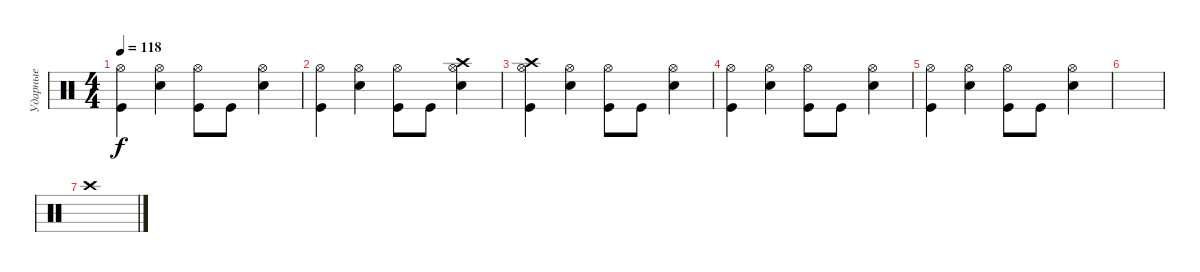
\track ("Ударные" "Ударные") {instrument percussion}
\staff {score}
\articulation defaults
\ts (4 4)
\tempo 118
\clef neutral
\ks c
("Hi-Hat (open)" "Kick (hit)").4{dy f} ("Hi-Hat (open)" "Snare (hit) 2").4 ("Hi-Hat (open)" "Kick (hit)").8 "Kick (hit)".8 ("Hi-Hat (open)" "Snare (hit) 2").4 |
("Hi-Hat (open)" "Kick (hit)").4 ("Hi-Hat (open)" "Snare (hit) 2").4 ("Hi-Hat (open)" "Kick (hit)").8 "Kick (hit)".8 ("Hi-Hat (open)" "Crash high (hit)" "Snare (hit) 2").4 |
("Hi-Hat (open)" "Crash high (hit)" "Kick (hit)").4 ("Hi-Hat (open)" "Snare (hit) 2").4 ("Hi-Hat (open)" "Kick (hit)").8 "Kick (hit)".8 ("Hi-Hat (open)" "Snare (hit) 2").4 |
("Hi-Hat (open)" "Kick (hit)").4 ("Hi-Hat (open)" "Snare (hit) 2").4 ("Hi-Hat (open)" "Kick (hit)").8 "Kick (hit)".8 ("Hi-Hat (open)" "Snare (hit) 2").4 |
("Hi-Hat (open)" "Kick (hit)").4 ("Hi-Hat (open)" "Snare (hit) 2").4 ("Hi-Hat (open)" "Kick (hit)").8 "Kick (hit)".8 ("Hi-Hat (open)" "Snare (hit) 2").4 |
|
"Crash high (hit)".1
